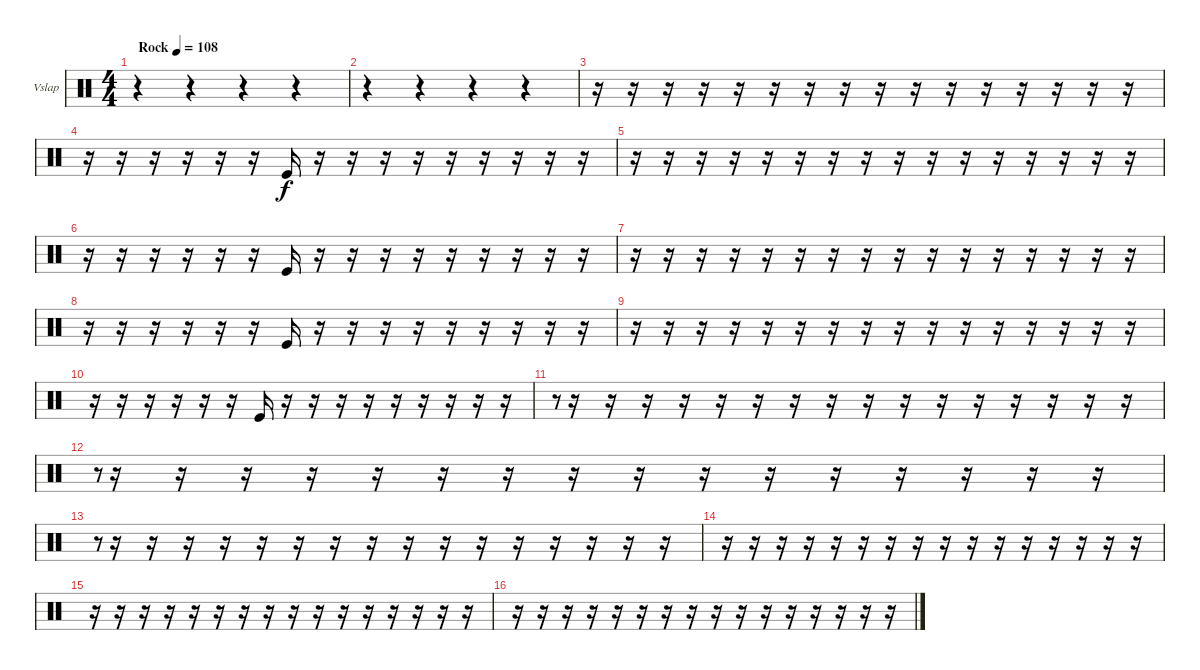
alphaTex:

\bracketExtendMode groupsimilarinstruments
\firstSystemTrackNameOrientation horizontal
\otherSystemsTrackNameOrientation horizontal
\track ("Vibraslap" "Vslap") {instrument percussion}
\staff {score}
\articulation defaults
\ts (4 4)
\beaming (8 2 2 2 2)
\tempo (108 "Rock")
\clef neutral
\ks c
r.4{dy f} r.4 r.4 r.4 |
r.4 r.4 r.4 r.4 |
r.16 r.16 r.16 r.16 r.16 r.16 r.16 r.16 r.16 r.16 r.16 r.16 r.16 r.16 r.16 r.16 |
r.16 r.16 r.16 r.16 r.16 r.16 "Kick (hit)".16 r.16 r.16 r.16 r.16 r.16 r.16 r.16 r.16 r.16 |
r.16 r.16 r.16 r.16 r.16 r.16 r.16 r.16 r.16 r.16 r.16 r.16 r.16 r.16 r.16 r.16 |
r.16 r.16 r.16 r.16 r.16 r.16 "Kick (hit)".16 r.16 r.16 r.16 r.16 r.16 r.16 r.16 r.16 r.16 |
r.16 r.16 r.16 r.16 r.16 r.16 r.16 r.16 r.16 r.16 r.16 r.16 r.16 r.16 r.16 r.16 |
r.16 r.16 r.16 r.16 r.16 r.16 "Kick (hit)".16 r.16 r.16 r.16 r.16 r.16 r.16 r.16 r.16 r.16 |
r.16 r.16 r.16 r.16 r.16 r.16 r.16 r.16 r.16 r.16 r.16 r.16 r.16 r.16 r.16 r.16 |
r.16 r.16 r.16 r.16 r.16 r.16 "Kick (hit)".16 r.16 r.16 r.16 r.16 r.16 r.16 r.16 r.16 r.16 |
r.8{gr onbeat} r.16 r.16 r.16 r.16 r.16 r.16 r.16 r.16 r.16 r.16 r.16 r.16 r.16 r.16 r.16 r.16 |
r.8{gr onbeat} r.16 r.16 r.16 r.16 r.16 r.16 r.16 r.16 r.16 r.16 r.16 r.16 r.16 r.16 r.16 r.16 |
r.8{gr onbeat} r.16 r.16 r.16 r.16 r.16 r.16 r.16 r.16 r.16 r.16 r.16 r.16 r.16 r.16 r.16 r.16 |
r.16 r.16 r.16 r.16 r.16 r.16 r.16 r.16 r.16 r.16 r.16 r.16 r.16 r.16 r.16 r.16 |
r.16 r.16 r.16 r.16 r.16 r.16 r.16 r.16 r.16 r.16 r.16 r.16 r.16 r.16 r.16 r.16 |
r.16 r.16 r.16 r.16 r.16 r.16 r.16 r.16 r.16 r.16 r.16 r.16 r.16 r.16 r.16 r.16
